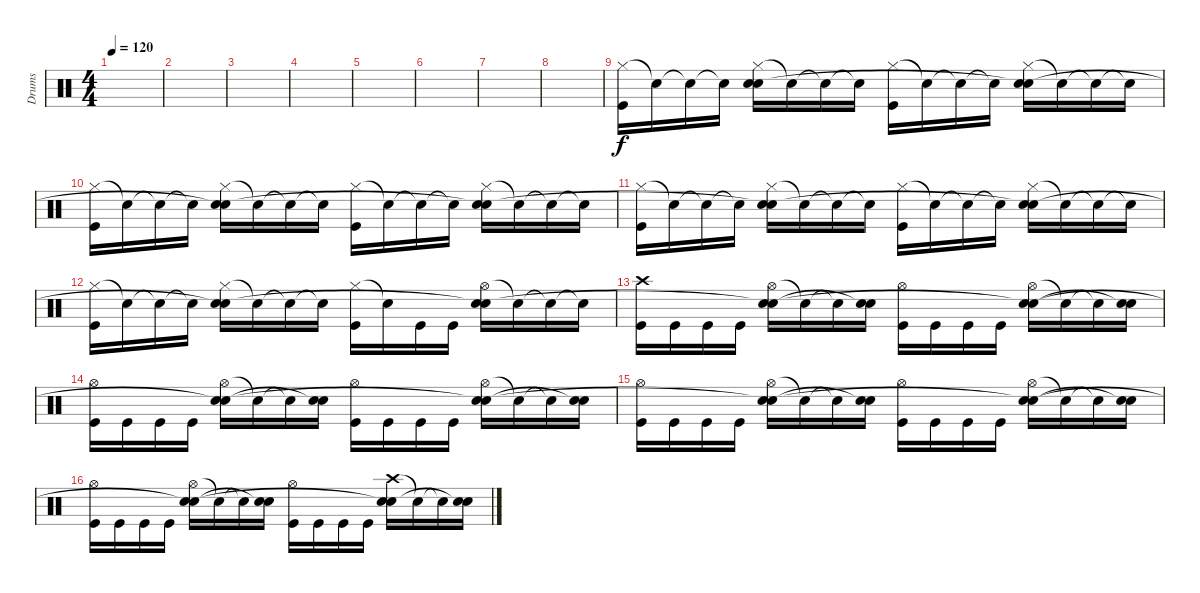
\track ("Drums" "Drums") {instrument percussion}
\staff {score}
\articulation defaults
\ts (4 4)
\tempo 120
\clef neutral
\ks c
|
|
|
|
|
|
|
|
("Hi-Hat (closed)" "Kick (hit)").16 "Snare (hit)"{t}.16 "Snare (hit)"{t}.16 "Snare (hit)"{t}.16 ("Hi-Hat (closed)" "Electric Snare (hit)" "Snare (hit)").16 "Snare (hit)"{t}.16 "Snare (hit)"{t}.16 "Snare (hit)"{t}.16 ("Hi-Hat (closed)" "Kick (hit)").16 "Snare (hit)"{t}.16 "Snare (hit)"{t}.16 "Snare (hit)"{t}.16 ("Hi-Hat (closed)" "Electric Snare (hit)" "Snare (hit)"{t}).16 "Snare (hit)"{t}.16 "Snare (hit)"{t}.16 "Snare (hit)"{t}.16 |
("Hi-Hat (closed)" "Kick (hit)").16 "Snare (hit)"{t}.16 "Snare (hit)"{t}.16 "Snare (hit)"{t}.16 ("Hi-Hat (closed)" "Electric Snare (hit)" "Snare (hit)"{t}).16 "Snare (hit)"{t}.16 "Snare (hit)"{t}.16 "Snare (hit)"{t}.16 ("Hi-Hat (closed)" "Kick (hit)").16 "Snare (hit)"{t}.16 "Snare (hit)"{t}.16 "Snare (hit)"{t}.16 ("Hi-Hat (closed)" "Electric Snare (hit)" "Snare (hit)"{t}).16 "Snare (hit)"{t}.16 "Snare (hit)"{t}.16 "Snare (hit)"{t}.16 |
("Hi-Hat (closed)" "Kick (hit)").16 "Snare (hit)"{t}.16 "Snare (hit)"{t}.16 "Snare (hit)"{t}.16 ("Hi-Hat (closed)" "Electric Snare (hit)" "Snare (hit)"{t}).16 "Snare (hit)"{t}.16 "Snare (hit)"{t}.16 "Snare (hit)"{t}.16 ("Hi-Hat (closed)" "Kick (hit)").16 "Snare (hit)"{t}.16 "Snare (hit)"{t}.16 "Snare (hit)"{t}.16 ("Hi-Hat (closed)" "Electric Snare (hit)" "Snare (hit)"{t}).16 "Snare (hit)"{t}.16 "Snare (hit)"{t}.16 "Snare (hit)"{t}.16 |
("Hi-Hat (closed)" "Kick (hit)").16 "Snare (hit)"{t}.16 "Snare (hit)"{t}.16 "Snare (hit)"{t}.16 ("Hi-Hat (closed)" "Electric Snare (hit)" "Snare (hit)"{t}).16 "Snare (hit)"{t}.16 "Snare (hit)"{t}.16 "Snare (hit)"{t}.16 ("Hi-Hat (closed)" "Kick (hit)").16 "Snare (hit)"{t}.16 "Kick (hit)".16 "Kick (hit)".16 ("Hi-Hat (open)" "Electric Snare (hit)" "Snare (hit)"{t}).16 "Snare (hit)"{t}.16 "Snare (hit)"{t}.16 "Snare (hit)"{t}.16 |
("Crash high (hit)" "Kick (hit)").16 "Kick (hit)".16 "Kick (hit)".16 "Kick (hit)".16 ("Hi-Hat (open)" "Electric Snare (hit)" "Snare (hit)"{t}).16 "Snare (hit)"{t}.16 "Snare (hit)"{t}.16 ("Electric Snare (hit)" "Snare (hit)"{t}).16 ("Hi-Hat (open)" "Kick (hit)").16 "Kick (hit)".16 "Kick (hit)".16 "Kick (hit)".16 ("Hi-Hat (open)" "Electric Snare (hit)" "Snare (hit)"{t}).16 "Snare (hit)"{t}.16 "Snare (hit)"{t}.16 ("Electric Snare (hit)" "Snare (hit)"{t}).16 |
("Hi-Hat (open)" "Kick (hit)").16 "Kick (hit)".16 "Kick (hit)".16 "Kick (hit)".16 ("Hi-Hat (open)" "Electric Snare (hit)" "Snare (hit)"{t}).16 "Snare (hit)"{t}.16 "Snare (hit)"{t}.16 ("Electric Snare (hit)" "Snare (hit)"{t}).16 ("Hi-Hat (open)" "Kick (hit)").16 "Kick (hit)".16 "Kick (hit)".16 "Kick (hit)".16 ("Hi-Hat (open)" "Electric Snare (hit)" "Snare (hit)"{t}).16 "Snare (hit)"{t}.16 "Snare (hit)"{t}.16 ("Electric Snare (hit)" "Snare (hit)"{t}).16 |
("Hi-Hat (open)" "Kick (hit)").16 "Kick (hit)".16 "Kick (hit)".16 "Kick (hit)".16 ("Hi-Hat (open)" "Electric Snare (hit)" "Snare (hit)"{t}).16 "Snare (hit)"{t}.16 "Snare (hit)"{t}.16 ("Electric Snare (hit)" "Snare (hit)"{t}).16 ("Hi-Hat (open)" "Kick (hit)").16 "Kick (hit)".16 "Kick (hit)".16 "Kick (hit)".16 ("Hi-Hat (open)" "Electric Snare (hit)" "Snare (hit)"{t}).16 "Snare (hit)"{t}.16 "Snare (hit)"{t}.16 ("Electric Snare (hit)" "Snare (hit)"{t}).16 |
("Hi-Hat (open)" "Kick (hit)").16 "Kick (hit)".16 "Kick (hit)".16 "Kick (hit)".16 ("Hi-Hat (open)" "Electric Snare (hit)" "Snare (hit)"{t}).16 "Snare (hit)"{t}.16 "Snare (hit)"{t}.16 ("Electric Snare (hit)" "Snare (hit)"{t}).16 ("Hi-Hat (open)" "Kick (hit)").16 "Kick (hit)".16 "Kick (hit)".16 "Kick (hit)".16 ("Crash high (hit)" "Electric Snare (hit)" "Snare (hit)"{t}).16 "Snare (hit)"{t}.16 "Snare (hit)"{t}.16 ("Electric Snare (hit)" "Snare (hit)"{t}).16
